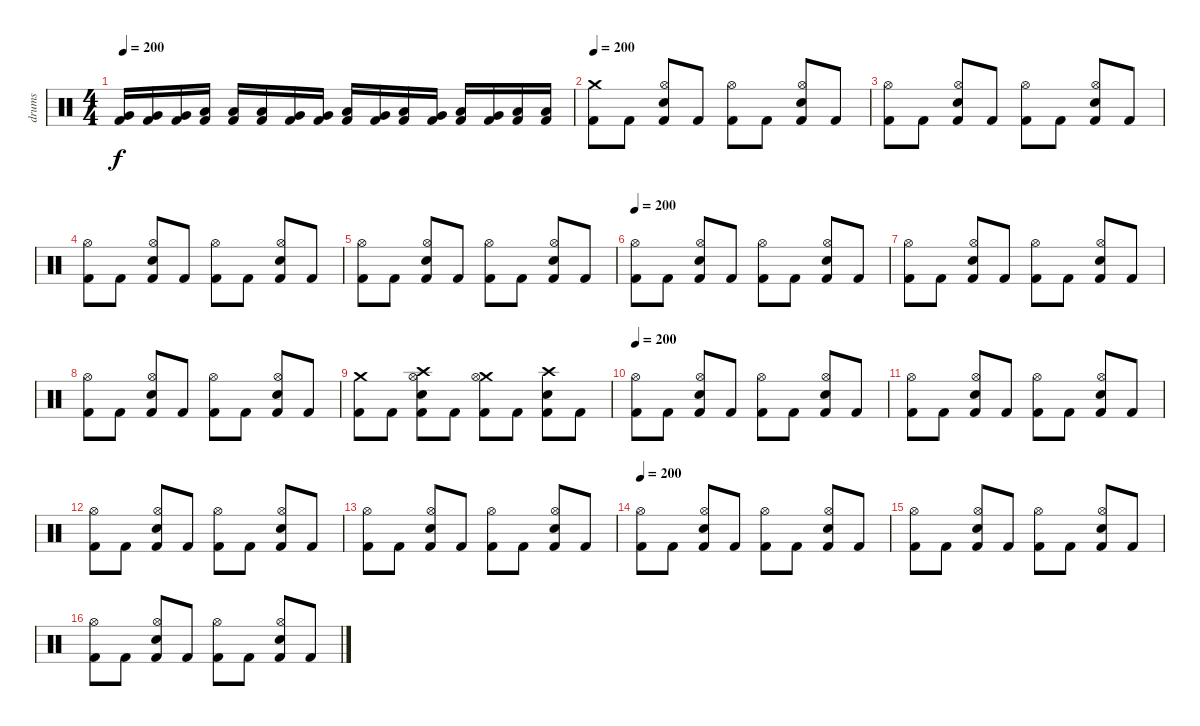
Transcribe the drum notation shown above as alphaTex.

\track ("drums" "drums") {instrument percussion}
\staff {score}
\articulation defaults
\ts (4 4)
\tempo 200
\clef neutral
\ks c
("Very Low Tom (hit)" "Kick (hit) 2").16{dy f} ("Very Low Tom (hit)" "Kick (hit) 2").16 ("Very Low Tom (hit)" "Kick (hit) 2").16 ("Low Floor Tom (hit)" "Kick (hit) 2").16 ("Low Floor Tom (hit)" "Kick (hit) 2").16 ("Low Tom (hit)" "Kick (hit) 2").16 ("Very Low Tom (hit)" "Kick (hit) 2").16 ("Very Low Tom (hit)" "Kick (hit) 2").16 ("Low Floor Tom (hit)" "Kick (hit) 2").16 ("Very Low Tom (hit)" "Kick (hit) 2").16 ("Low Floor Tom (hit)" "Kick (hit) 2").16 ("Very Low Tom (hit)" "Kick (hit) 2").16 ("Low Tom (hit)" "Kick (hit) 2").16 ("Very Low Tom (hit)" "Kick (hit) 2").16 ("Low Floor Tom (hit)" "Kick (hit) 2").16 ("Low Floor Tom (hit)" "Kick (hit) 2").16 |
\tempo 200
("Crash medium (hit)" "Kick (hit) 2").8 "Kick (hit) 2".8 ("Hi-Hat (open)" "Electric Snare (hit)" "Kick (hit) 2").8 "Kick (hit) 2".8 ("Hi-Hat (open)" "Kick (hit) 2").8 "Kick (hit) 2".8 ("Hi-Hat (open)" "Electric Snare (hit)" "Kick (hit) 2").8 "Kick (hit) 2".8 |
("Hi-Hat (open)" "Kick (hit) 2").8 "Kick (hit) 2".8 ("Hi-Hat (open)" "Electric Snare (hit)" "Kick (hit) 2").8 "Kick (hit) 2".8 ("Hi-Hat (open)" "Kick (hit) 2").8 "Kick (hit) 2".8 ("Hi-Hat (open)" "Electric Snare (hit)" "Kick (hit) 2").8 "Kick (hit) 2".8 |
("Hi-Hat (open)" "Kick (hit) 2").8 "Kick (hit) 2".8 ("Hi-Hat (open)" "Electric Snare (hit)" "Kick (hit) 2").8 "Kick (hit) 2".8 ("Hi-Hat (open)" "Kick (hit) 2").8 "Kick (hit) 2".8 ("Hi-Hat (open)" "Electric Snare (hit)" "Kick (hit) 2").8 "Kick (hit) 2".8 |
("Hi-Hat (open)" "Kick (hit) 2").8 "Kick (hit) 2".8 ("Hi-Hat (open)" "Electric Snare (hit)" "Kick (hit) 2").8 "Kick (hit) 2".8 ("Hi-Hat (open)" "Kick (hit) 2").8 "Kick (hit) 2".8 ("Hi-Hat (open)" "Electric Snare (hit)" "Kick (hit) 2").8 "Kick (hit) 2".8 |
\tempo 200
("Hi-Hat (open)" "Kick (hit) 2").8 "Kick (hit) 2".8 ("Hi-Hat (open)" "Electric Snare (hit)" "Kick (hit) 2").8 "Kick (hit) 2".8 ("Hi-Hat (open)" "Kick (hit) 2").8 "Kick (hit) 2".8 ("Hi-Hat (open)" "Electric Snare (hit)" "Kick (hit) 2").8 "Kick (hit) 2".8 |
("Hi-Hat (open)" "Kick (hit) 2").8 "Kick (hit) 2".8 ("Hi-Hat (open)" "Electric Snare (hit)" "Kick (hit) 2").8 "Kick (hit) 2".8 ("Hi-Hat (open)" "Kick (hit) 2").8 "Kick (hit) 2".8 ("Hi-Hat (open)" "Electric Snare (hit)" "Kick (hit) 2").8 "Kick (hit) 2".8 |
("Hi-Hat (open)" "Kick (hit) 2").8 "Kick (hit) 2".8 ("Hi-Hat (open)" "Electric Snare (hit)" "Kick (hit) 2").8 "Kick (hit) 2".8 ("Hi-Hat (open)" "Kick (hit) 2").8 "Kick (hit) 2".8 ("Hi-Hat (open)" "Electric Snare (hit)" "Kick (hit) 2").8 "Kick (hit) 2".8 |
("Crash medium (hit)" "Kick (hit) 2").8 "Kick (hit) 2".8 ("Crash high (hit)" "Hi-Hat (open)" "Electric Snare (hit)" "Kick (hit) 2").8 "Kick (hit) 2".8 ("Crash medium (hit)" "Hi-Hat (open)" "Kick (hit) 2").8 "Kick (hit) 2".8 ("Crash high (hit)" "Electric Snare (hit)" "Kick (hit) 2").8 "Kick (hit) 2".8 |
\tempo 200
("Hi-Hat (open)" "Kick (hit) 2").8 "Kick (hit) 2".8 ("Hi-Hat (open)" "Electric Snare (hit)" "Kick (hit) 2").8 "Kick (hit) 2".8 ("Hi-Hat (open)" "Kick (hit) 2").8 "Kick (hit) 2".8 ("Hi-Hat (open)" "Electric Snare (hit)" "Kick (hit) 2").8 "Kick (hit) 2".8 |
("Hi-Hat (open)" "Kick (hit) 2").8 "Kick (hit) 2".8 ("Hi-Hat (open)" "Electric Snare (hit)" "Kick (hit) 2").8 "Kick (hit) 2".8 ("Hi-Hat (open)" "Kick (hit) 2").8 "Kick (hit) 2".8 ("Hi-Hat (open)" "Electric Snare (hit)" "Kick (hit) 2").8 "Kick (hit) 2".8 |
("Hi-Hat (open)" "Kick (hit) 2").8 "Kick (hit) 2".8 ("Hi-Hat (open)" "Electric Snare (hit)" "Kick (hit) 2").8 "Kick (hit) 2".8 ("Hi-Hat (open)" "Kick (hit) 2").8 "Kick (hit) 2".8 ("Hi-Hat (open)" "Electric Snare (hit)" "Kick (hit) 2").8 "Kick (hit) 2".8 |
("Hi-Hat (open)" "Kick (hit) 2").8 "Kick (hit) 2".8 ("Hi-Hat (open)" "Electric Snare (hit)" "Kick (hit) 2").8 "Kick (hit) 2".8 ("Hi-Hat (open)" "Kick (hit) 2").8 "Kick (hit) 2".8 ("Hi-Hat (open)" "Electric Snare (hit)" "Kick (hit) 2").8 "Kick (hit) 2".8 |
\tempo 200
("Hi-Hat (open)" "Kick (hit) 2").8 "Kick (hit) 2".8 ("Hi-Hat (open)" "Electric Snare (hit)" "Kick (hit) 2").8 "Kick (hit) 2".8 ("Hi-Hat (open)" "Kick (hit) 2").8 "Kick (hit) 2".8 ("Hi-Hat (open)" "Electric Snare (hit)" "Kick (hit) 2").8 "Kick (hit) 2".8 |
("Hi-Hat (open)" "Kick (hit) 2").8 "Kick (hit) 2".8 ("Hi-Hat (open)" "Electric Snare (hit)" "Kick (hit) 2").8 "Kick (hit) 2".8 ("Hi-Hat (open)" "Kick (hit) 2").8 "Kick (hit) 2".8 ("Hi-Hat (open)" "Electric Snare (hit)" "Kick (hit) 2").8 "Kick (hit) 2".8 |
("Hi-Hat (open)" "Kick (hit) 2").8 "Kick (hit) 2".8 ("Hi-Hat (open)" "Electric Snare (hit)" "Kick (hit) 2").8 "Kick (hit) 2".8 ("Hi-Hat (open)" "Kick (hit) 2").8 "Kick (hit) 2".8 ("Hi-Hat (open)" "Electric Snare (hit)" "Kick (hit) 2").8 "Kick (hit) 2".8
